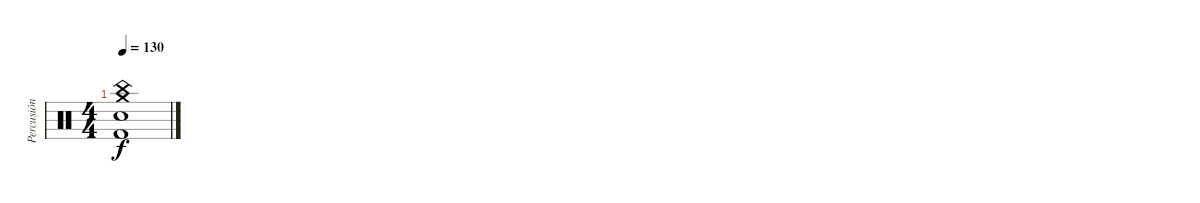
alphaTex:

\track ("Percusión" "Percusión") {instrument percussion}
\staff {score}
\articulation defaults
\ts (4 4)
\tempo 130
\clef neutral
\ks c
("Snare (hit) 2" "Crash medium (hit)" "China (hit)" "Kick (hit) 2").1{dy f}
